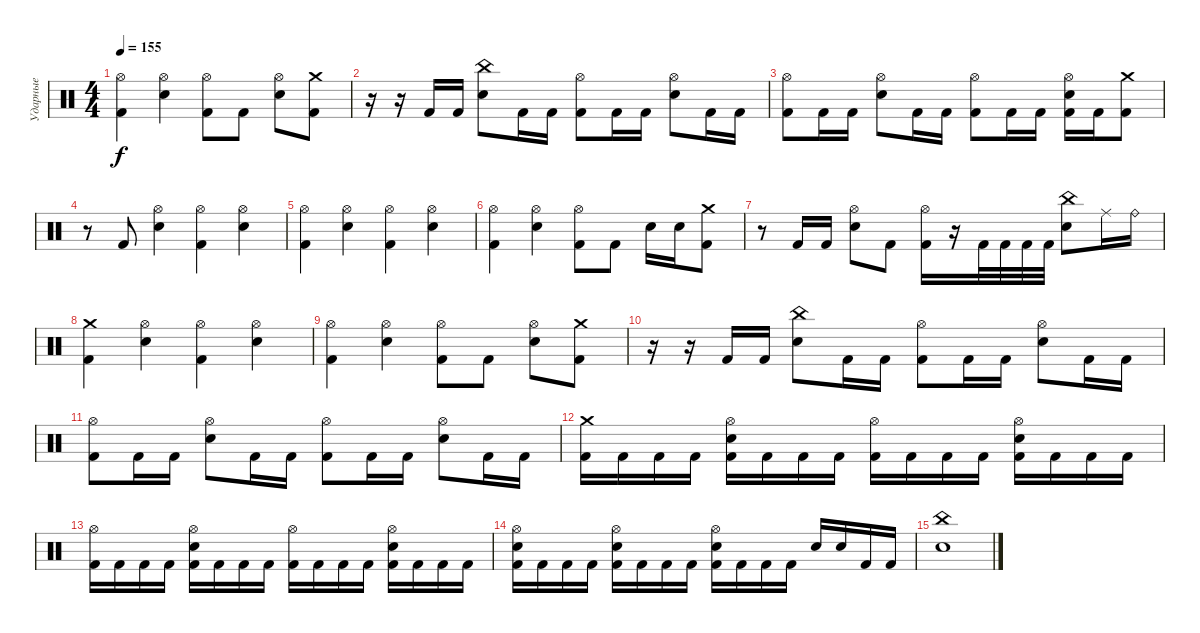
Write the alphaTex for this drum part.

\track ("Ударные" "Ударные") {instrument percussion}
\staff {score}
\articulation defaults
\ts (4 4)
\tempo 155
\clef neutral
\ks c
("Hi-Hat (open)" "Kick (hit) 2").4{dy f} ("Hi-Hat (open)" "Snare (hit) 2").4 ("Hi-Hat (open)" "Kick (hit) 2").8 "Kick (hit) 2".8 ("Hi-Hat (open)" "Snare (hit) 2").8 ("Crash medium (hit)" "Kick (hit) 2").8 |
r.16 r.16 "Kick (hit) 2".16 "Kick (hit) 2".16 ("China (hit)" "Snare (hit) 2").8 "Kick (hit) 2".16 "Kick (hit) 2".16 ("Hi-Hat (open)" "Kick (hit) 2").8 "Kick (hit) 2".16 "Kick (hit) 2".16 ("Hi-Hat (open)" "Snare (hit) 2").8 "Kick (hit) 2".16 "Kick (hit) 2".16 |
("Hi-Hat (open)" "Kick (hit) 2").8 "Kick (hit) 2".16 "Kick (hit) 2".16 ("Hi-Hat (open)" "Snare (hit) 2").8 "Kick (hit) 2".16 "Kick (hit) 2".16 ("Hi-Hat (open)" "Kick (hit) 2").8 "Kick (hit) 2".16 "Kick (hit) 2".16 ("Hi-Hat (open)" "Snare (hit) 2" "Kick (hit) 2").16 "Kick (hit) 2".16 ("Crash medium (hit)" "Kick (hit) 2").8 |
r.8 "Kick (hit) 2".8 ("Hi-Hat (open)" "Snare (hit) 2").4 ("Hi-Hat (open)" "Kick (hit) 2").4 ("Hi-Hat (open)" "Snare (hit) 2").4 |
("Hi-Hat (open)" "Kick (hit) 2").4 ("Hi-Hat (open)" "Snare (hit) 2").4 ("Hi-Hat (open)" "Kick (hit) 2").4 ("Hi-Hat (open)" "Snare (hit) 2").4 |
("Hi-Hat (open)" "Kick (hit) 2").4 ("Hi-Hat (open)" "Snare (hit) 2").4 ("Hi-Hat (open)" "Kick (hit) 2").8 "Kick (hit) 2".8 "Snare (hit) 2".16 "Snare (hit) 2".16 ("Crash medium (hit)" "Kick (hit) 2").8 |
r.8 "Kick (hit) 2".16 "Kick (hit) 2".16 ("Hi-Hat (open)" "Snare (hit) 2").8 "Kick (hit) 2".8 ("Hi-Hat (open)" "Kick (hit) 2").16 r.16 "Kick (hit) 2".32 "Kick (hit) 2".32 "Kick (hit) 2".32 "Kick (hit) 2".32 ("China (hit)" "Snare (hit) 2").8 "Ride (middle)".16 "Ride (bell)".16 |
("Crash medium (hit)" "Kick (hit) 2").4 ("Hi-Hat (open)" "Snare (hit) 2").4 ("Hi-Hat (open)" "Kick (hit) 2").4 ("Hi-Hat (open)" "Snare (hit) 2").4 |
("Hi-Hat (open)" "Kick (hit) 2").4 ("Hi-Hat (open)" "Snare (hit) 2").4 ("Hi-Hat (open)" "Kick (hit) 2").8 "Kick (hit) 2".8 ("Hi-Hat (open)" "Snare (hit) 2").8 ("Crash medium (hit)" "Kick (hit) 2").8 |
r.16 r.16 "Kick (hit) 2".16 "Kick (hit) 2".16 ("China (hit)" "Snare (hit) 2").8 "Kick (hit) 2".16 "Kick (hit) 2".16 ("Hi-Hat (open)" "Kick (hit) 2").8 "Kick (hit) 2".16 "Kick (hit) 2".16 ("Hi-Hat (open)" "Snare (hit) 2").8 "Kick (hit) 2".16 "Kick (hit) 2".16 |
("Hi-Hat (open)" "Kick (hit) 2").8 "Kick (hit) 2".16 "Kick (hit) 2".16 ("Hi-Hat (open)" "Snare (hit) 2").8 "Kick (hit) 2".16 "Kick (hit) 2".16 ("Hi-Hat (open)" "Kick (hit) 2").8 "Kick (hit) 2".16 "Kick (hit) 2".16 ("Hi-Hat (open)" "Snare (hit) 2").8 "Kick (hit) 2".16 "Kick (hit) 2".16 |
("Crash medium (hit)" "Kick (hit) 2").16 "Kick (hit) 2".16 "Kick (hit) 2".16 "Kick (hit) 2".16 ("Hi-Hat (open)" "Snare (hit) 2" "Kick (hit) 2").16 "Kick (hit) 2".16 "Kick (hit) 2".16 "Kick (hit) 2".16 ("Hi-Hat (open)" "Kick (hit) 2").16 "Kick (hit) 2".16 "Kick (hit) 2".16 "Kick (hit) 2".16 ("Hi-Hat (open)" "Snare (hit) 2" "Kick (hit) 2").16 "Kick (hit) 2".16 "Kick (hit) 2".16 "Kick (hit) 2".16 |
("Hi-Hat (open)" "Kick (hit) 2").16 "Kick (hit) 2".16 "Kick (hit) 2".16 "Kick (hit) 2".16 ("Hi-Hat (open)" "Snare (hit) 2" "Kick (hit) 2").16 "Kick (hit) 2".16 "Kick (hit) 2".16 "Kick (hit) 2".16 ("Hi-Hat (open)" "Kick (hit) 2").16 "Kick (hit) 2".16 "Kick (hit) 2".16 "Kick (hit) 2".16 ("Hi-Hat (open)" "Snare (hit) 2" "Kick (hit) 2").16 "Kick (hit) 2".16 "Kick (hit) 2".16 "Kick (hit) 2".16 |
("Hi-Hat (open)" "Snare (hit) 2" "Kick (hit) 2").16 "Kick (hit) 2".16 "Kick (hit) 2".16 "Kick (hit) 2".16 ("Hi-Hat (open)" "Snare (hit) 2" "Kick (hit) 2").16 "Kick (hit) 2".16 "Kick (hit) 2".16 "Kick (hit) 2".16 ("Hi-Hat (open)" "Snare (hit) 2" "Kick (hit) 2").16 "Kick (hit) 2".16 "Kick (hit) 2".16 "Kick (hit) 2".16 "Snare (hit) 2".16 "Snare (hit) 2".16 "Kick (hit) 2".16 "Kick (hit) 2".16 |
("China (hit)" "Snare (hit) 2").1
